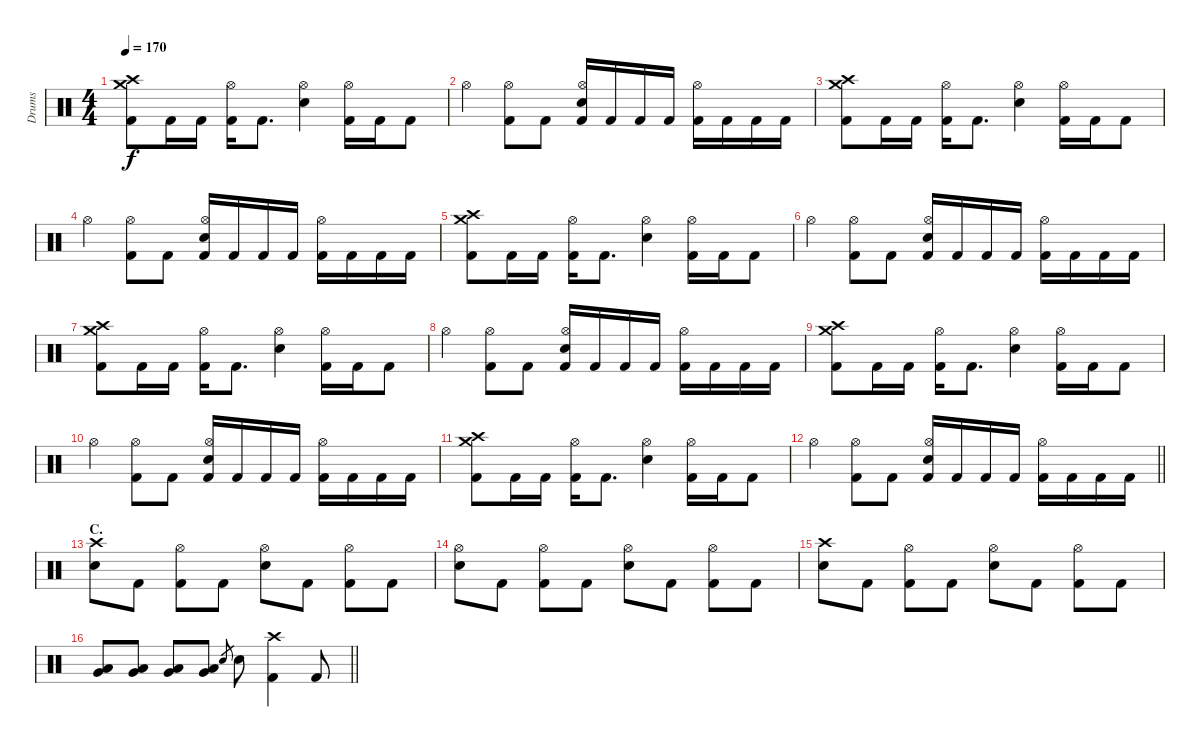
\track ("Drums" "Drums") {instrument percussion}
\staff {score}
\articulation defaults
\ts (4 4)
\tempo 170
\clef neutral
\ks c
("Crash medium (hit)" "Crash high (hit)" "Kick (hit) 2").8{dy f} "Kick (hit) 2".16 "Kick (hit) 2".16 ("Hi-Hat (open)" "Kick (hit) 2").16 "Kick (hit) 2".8{d} ("Hi-Hat (open)" "Electric Snare (hit)").4 ("Hi-Hat (open)" "Kick (hit) 2").16 "Kick (hit) 2".16 "Kick (hit) 2".8 |
"Hi-Hat (open)".4 ("Hi-Hat (open)" "Kick (hit) 2").8 "Kick (hit) 2".8 ("Hi-Hat (open)" "Electric Snare (hit)" "Kick (hit) 2").16 "Kick (hit) 2".16 "Kick (hit) 2".16 "Kick (hit) 2".16 ("Hi-Hat (open)" "Kick (hit) 2").16 "Kick (hit) 2".16 "Kick (hit) 2".16 "Kick (hit) 2".16 |
("Crash medium (hit)" "Crash high (hit)" "Kick (hit) 2").8 "Kick (hit) 2".16 "Kick (hit) 2".16 ("Hi-Hat (open)" "Kick (hit) 2").16 "Kick (hit) 2".8{d} ("Hi-Hat (open)" "Electric Snare (hit)").4 ("Hi-Hat (open)" "Kick (hit) 2").16 "Kick (hit) 2".16 "Kick (hit) 2".8 |
"Hi-Hat (open)".4 ("Hi-Hat (open)" "Kick (hit) 2").8 "Kick (hit) 2".8 ("Hi-Hat (open)" "Electric Snare (hit)" "Kick (hit) 2").16 "Kick (hit) 2".16 "Kick (hit) 2".16 "Kick (hit) 2".16 ("Hi-Hat (open)" "Kick (hit) 2").16 "Kick (hit) 2".16 "Kick (hit) 2".16 "Kick (hit) 2".16 |
("Crash medium (hit)" "Crash high (hit)" "Kick (hit) 2").8 "Kick (hit) 2".16 "Kick (hit) 2".16 ("Hi-Hat (open)" "Kick (hit) 2").16 "Kick (hit) 2".8{d} ("Hi-Hat (open)" "Electric Snare (hit)").4 ("Hi-Hat (open)" "Kick (hit) 2").16 "Kick (hit) 2".16 "Kick (hit) 2".8 |
"Hi-Hat (open)".4 ("Hi-Hat (open)" "Kick (hit) 2").8 "Kick (hit) 2".8 ("Hi-Hat (open)" "Electric Snare (hit)" "Kick (hit) 2").16 "Kick (hit) 2".16 "Kick (hit) 2".16 "Kick (hit) 2".16 ("Hi-Hat (open)" "Kick (hit) 2").16 "Kick (hit) 2".16 "Kick (hit) 2".16 "Kick (hit) 2".16 |
("Crash medium (hit)" "Crash high (hit)" "Kick (hit) 2").8 "Kick (hit) 2".16 "Kick (hit) 2".16 ("Hi-Hat (open)" "Kick (hit) 2").16 "Kick (hit) 2".8{d} ("Hi-Hat (open)" "Electric Snare (hit)").4 ("Hi-Hat (open)" "Kick (hit) 2").16 "Kick (hit) 2".16 "Kick (hit) 2".8 |
"Hi-Hat (open)".4 ("Hi-Hat (open)" "Kick (hit) 2").8 "Kick (hit) 2".8 ("Hi-Hat (open)" "Electric Snare (hit)" "Kick (hit) 2").16 "Kick (hit) 2".16 "Kick (hit) 2".16 "Kick (hit) 2".16 ("Hi-Hat (open)" "Kick (hit) 2").16 "Kick (hit) 2".16 "Kick (hit) 2".16 "Kick (hit) 2".16 |
("Crash medium (hit)" "Crash high (hit)" "Kick (hit) 2").8 "Kick (hit) 2".16 "Kick (hit) 2".16 ("Hi-Hat (open)" "Kick (hit) 2").16 "Kick (hit) 2".8{d} ("Hi-Hat (open)" "Electric Snare (hit)").4 ("Hi-Hat (open)" "Kick (hit) 2").16 "Kick (hit) 2".16 "Kick (hit) 2".8 |
"Hi-Hat (open)".4 ("Hi-Hat (open)" "Kick (hit) 2").8 "Kick (hit) 2".8 ("Hi-Hat (open)" "Electric Snare (hit)" "Kick (hit) 2").16 "Kick (hit) 2".16 "Kick (hit) 2".16 "Kick (hit) 2".16 ("Hi-Hat (open)" "Kick (hit) 2").16 "Kick (hit) 2".16 "Kick (hit) 2".16 "Kick (hit) 2".16 |
("Crash medium (hit)" "Crash high (hit)" "Kick (hit) 2").8 "Kick (hit) 2".16 "Kick (hit) 2".16 ("Hi-Hat (open)" "Kick (hit) 2").16 "Kick (hit) 2".8{d} ("Hi-Hat (open)" "Electric Snare (hit)").4 ("Hi-Hat (open)" "Kick (hit) 2").16 "Kick (hit) 2".16 "Kick (hit) 2".8 |
\barLineRight lightlight "Hi-Hat (open)".4
("Hi-Hat (open)" "Kick (hit) 2").8 "Kick (hit) 2".8 ("Hi-Hat (open)" "Electric Snare (hit)" "Kick (hit) 2").16 "Kick (hit) 2".16 "Kick (hit) 2".16 "Kick (hit) 2".16 ("Hi-Hat (open)" "Kick (hit) 2").16 "Kick (hit) 2".16 "Kick (hit) 2".16 "Kick (hit) 2".16 |
\section ("" "C.")
("Crash high (hit)" "Electric Snare (hit)").8 "Kick (hit) 2".8 ("Hi-Hat (open)" "Kick (hit) 2").8 "Kick (hit) 2".8 ("Hi-Hat (open)" "Electric Snare (hit)").8 "Kick (hit) 2".8 ("Hi-Hat (open)" "Kick (hit) 2").8 "Kick (hit) 2".8 |
("Hi-Hat (open)" "Electric Snare (hit)").8 "Kick (hit) 2".8 ("Hi-Hat (open)" "Kick (hit) 2").8 "Kick (hit) 2".8 ("Hi-Hat (open)" "Electric Snare (hit)").8 "Kick (hit) 2".8 ("Hi-Hat (open)" "Kick (hit) 2").8 "Kick (hit) 2".8 |
("Crash high (hit)" "Electric Snare (hit)").8 "Kick (hit) 2".8 ("Hi-Hat (open)" "Kick (hit) 2").8 "Kick (hit) 2".8 ("Hi-Hat (open)" "Electric Snare (hit)").8 "Kick (hit) 2".8 ("Hi-Hat (open)" "Kick (hit) 2").8 "Kick (hit) 2".8 |
\barLineRight lightlight
("Low Tom (hit)" "Very Low Tom (hit)").8{bu 120} ("Low Tom (hit)" "Very Low Tom (hit)").8{bu 120} ("Low Tom (hit)" "Very Low Tom (hit)").8{bu 120} ("Low Tom (hit)" "Very Low Tom (hit)").8{bu 120} "Electric Snare (hit)".8{gr} "Electric Snare (hit)".8 ("Crash high (hit)" "Kick (hit) 2").4 "Kick (hit) 2".8
